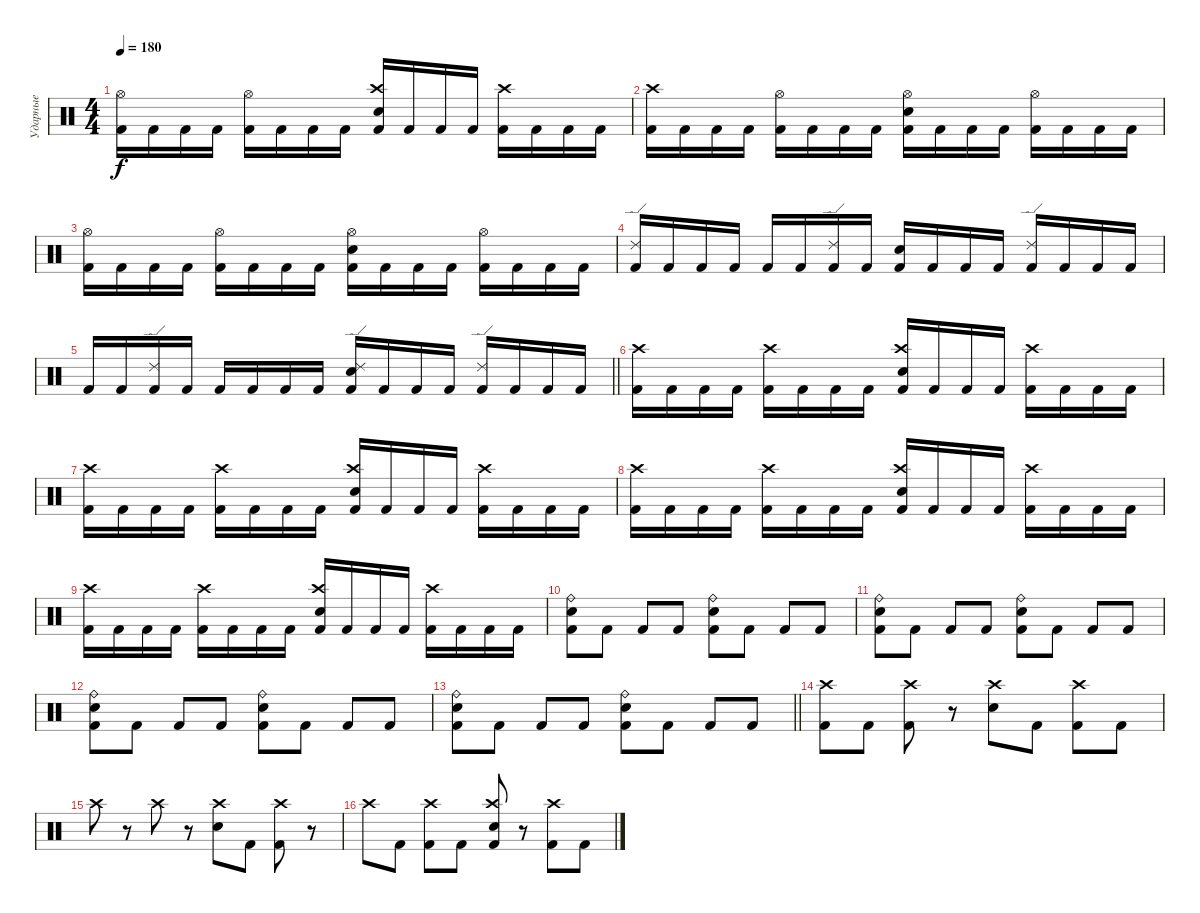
\track ("Ударные" "Ударные") {instrument percussion}
\staff {score}
\articulation defaults
\ts (4 4)
\tempo 180
\clef neutral
\ks c
("Hi-Hat (open)" "Kick (hit) 2").16{dy f} "Kick (hit) 2".16 "Kick (hit) 2".16 "Kick (hit) 2".16 ("Hi-Hat (open)" "Kick (hit) 2").16 "Kick (hit) 2".16 "Kick (hit) 2".16 "Kick (hit) 2".16 ("Crash high (hit)" "Electric Snare (hit)" "Kick (hit) 2").16 "Kick (hit) 2".16 "Kick (hit) 2".16 "Kick (hit) 2".16 ("Crash high (hit)" "Kick (hit) 2").16 "Kick (hit) 2".16 "Kick (hit) 2".16 "Kick (hit) 2".16 |
("Crash high (hit)" "Kick (hit) 2").16 "Kick (hit) 2".16 "Kick (hit) 2".16 "Kick (hit) 2".16 ("Hi-Hat (open)" "Kick (hit) 2").16 "Kick (hit) 2".16 "Kick (hit) 2".16 "Kick (hit) 2".16 ("Hi-Hat (open)" "Electric Snare (hit)" "Kick (hit) 2").16 "Kick (hit) 2".16 "Kick (hit) 2".16 "Kick (hit) 2".16 ("Hi-Hat (open)" "Kick (hit) 2").16 "Kick (hit) 2".16 "Kick (hit) 2".16 "Kick (hit) 2".16 |
("Hi-Hat (open)" "Kick (hit) 2").16 "Kick (hit) 2".16 "Kick (hit) 2".16 "Kick (hit) 2".16 ("Hi-Hat (open)" "Kick (hit) 2").16 "Kick (hit) 2".16 "Kick (hit) 2".16 "Kick (hit) 2".16 ("Hi-Hat (open)" "Electric Snare (hit)" "Kick (hit) 2").16 "Kick (hit) 2".16 "Kick (hit) 2".16 "Kick (hit) 2".16 ("Hi-Hat (open)" "Kick (hit) 2").16 "Kick (hit) 2".16 "Kick (hit) 2".16 "Kick (hit) 2".16 |
("Ride (edge) 2" "Kick (hit) 2").16 "Kick (hit) 2".16 "Kick (hit) 2".16 "Kick (hit) 2".16 "Kick (hit) 2".16 "Kick (hit) 2".16 ("Ride (edge) 2" "Kick (hit) 2").16 "Kick (hit) 2".16 ("Electric Snare (hit)" "Kick (hit) 2").16 "Kick (hit) 2".16 "Kick (hit) 2".16 "Kick (hit) 2".16 ("Ride (edge) 2" "Kick (hit) 2").16 "Kick (hit) 2".16 "Kick (hit) 2".16 "Kick (hit) 2".16 |
\barLineRight lightlight "Kick (hit) 2".16 "Kick (hit) 2".16
("Ride (edge) 2" "Kick (hit) 2").16 "Kick (hit) 2".16 "Kick (hit) 2".16 "Kick (hit) 2".16 "Kick (hit) 2".16 "Kick (hit) 2".16 ("Ride (edge) 2" "Electric Snare (hit)" "Kick (hit) 2").16 "Kick (hit) 2".16 "Kick (hit) 2".16 "Kick (hit) 2".16 ("Ride (edge) 2" "Kick (hit) 2").16 "Kick (hit) 2".16 "Kick (hit) 2".16 "Kick (hit) 2".16 |
\section ("" "")
("Crash high (hit)" "Kick (hit) 2").16 "Kick (hit) 2".16 "Kick (hit) 2".16 "Kick (hit) 2".16 ("Crash high (hit)" "Kick (hit) 2").16 "Kick (hit) 2".16 "Kick (hit) 2".16 "Kick (hit) 2".16 ("Crash high (hit)" "Electric Snare (hit)" "Kick (hit) 2").16 "Kick (hit) 2".16 "Kick (hit) 2".16 "Kick (hit) 2".16 ("Crash high (hit)" "Kick (hit) 2").16 "Kick (hit) 2".16 "Kick (hit) 2".16 "Kick (hit) 2".16 |
("Crash high (hit)" "Kick (hit) 2").16 "Kick (hit) 2".16 "Kick (hit) 2".16 "Kick (hit) 2".16 ("Crash high (hit)" "Kick (hit) 2").16 "Kick (hit) 2".16 "Kick (hit) 2".16 "Kick (hit) 2".16 ("Crash high (hit)" "Electric Snare (hit)" "Kick (hit) 2").16 "Kick (hit) 2".16 "Kick (hit) 2".16 "Kick (hit) 2".16 ("Crash high (hit)" "Kick (hit) 2").16 "Kick (hit) 2".16 "Kick (hit) 2".16 "Kick (hit) 2".16 |
("Crash high (hit)" "Kick (hit) 2").16 "Kick (hit) 2".16 "Kick (hit) 2".16 "Kick (hit) 2".16 ("Crash high (hit)" "Kick (hit) 2").16 "Kick (hit) 2".16 "Kick (hit) 2".16 "Kick (hit) 2".16 ("Crash high (hit)" "Electric Snare (hit)" "Kick (hit) 2").16 "Kick (hit) 2".16 "Kick (hit) 2".16 "Kick (hit) 2".16 ("Crash high (hit)" "Kick (hit) 2").16 "Kick (hit) 2".16 "Kick (hit) 2".16 "Kick (hit) 2".16 |
("Crash high (hit)" "Kick (hit) 2").16 "Kick (hit) 2".16 "Kick (hit) 2".16 "Kick (hit) 2".16 ("Crash high (hit)" "Kick (hit) 2").16 "Kick (hit) 2".16 "Kick (hit) 2".16 "Kick (hit) 2".16 ("Crash high (hit)" "Electric Snare (hit)" "Kick (hit) 2").16 "Kick (hit) 2".16 "Kick (hit) 2".16 "Kick (hit) 2".16 ("Crash high (hit)" "Kick (hit) 2").16 "Kick (hit) 2".16 "Kick (hit) 2".16 "Kick (hit) 2".16 |
("Ride (bell)" "Electric Snare (hit)" "Kick (hit) 2").8 "Kick (hit) 2".8 "Kick (hit) 2".8 "Kick (hit) 2".8 ("Ride (bell)" "Electric Snare (hit)" "Kick (hit) 2").8 "Kick (hit) 2".8 "Kick (hit) 2".8 "Kick (hit) 2".8 |
("Ride (bell)" "Electric Snare (hit)" "Kick (hit) 2").8 "Kick (hit) 2".8 "Kick (hit) 2".8 "Kick (hit) 2".8 ("Ride (bell)" "Electric Snare (hit)" "Kick (hit) 2").8 "Kick (hit) 2".8 "Kick (hit) 2".8 "Kick (hit) 2".8 |
("Ride (bell)" "Electric Snare (hit)" "Kick (hit) 2").8 "Kick (hit) 2".8 "Kick (hit) 2".8 "Kick (hit) 2".8 ("Ride (bell)" "Electric Snare (hit)" "Kick (hit) 2").8 "Kick (hit) 2".8 "Kick (hit) 2".8 "Kick (hit) 2".8 |
\barLineRight lightlight
("Ride (bell)" "Electric Snare (hit)" "Kick (hit) 2").8 "Kick (hit) 2".8 "Kick (hit) 2".8 "Kick (hit) 2".8 ("Ride (bell)" "Electric Snare (hit)" "Kick (hit) 2").8 "Kick (hit) 2".8 "Kick (hit) 2".8 "Kick (hit) 2".8 |
\section ("" "")
("Crash high (hit)" "Kick (hit) 2").8 "Kick (hit) 2".8 ("Crash high (hit)" "Kick (hit) 2").8 r.8 ("Crash high (hit)" "Electric Snare (hit)").8 "Kick (hit) 2".8 ("Crash high (hit)" "Kick (hit) 2").8 "Kick (hit) 2".8 |
"Crash high (hit)".8 r.8 "Crash high (hit)".8 r.8 ("Crash high (hit)" "Electric Snare (hit)").8 "Kick (hit) 2".8 ("Crash high (hit)" "Kick (hit) 2").8 r.8 |
"Crash high (hit)".8 "Kick (hit) 2".8 ("Crash high (hit)" "Kick (hit) 2").8 "Kick (hit) 2".8 ("Crash high (hit)" "Electric Snare (hit)" "Kick (hit) 2").8 r.8 ("Crash high (hit)" "Kick (hit) 2").8 "Kick (hit) 2".8
